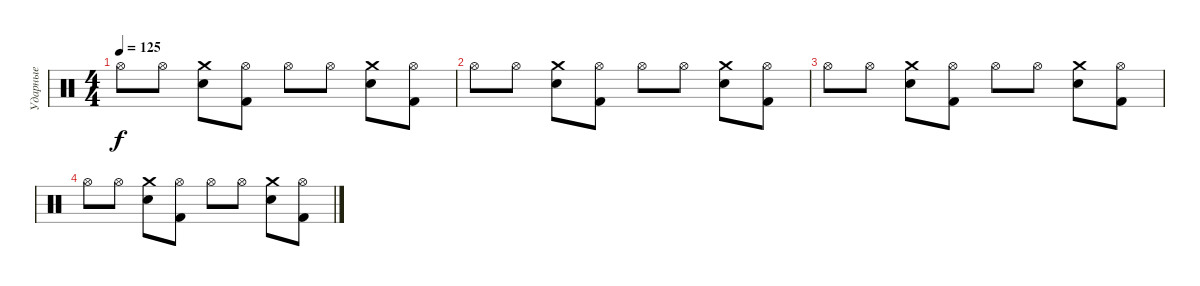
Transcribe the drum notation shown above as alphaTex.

\track ("Ударные" "Ударные") {instrument percussion}
\staff {score}
\articulation defaults
\ts (4 4)
\tempo 125
\clef neutral
\ks c "Hi-Hat (open)".8{dy f} "Hi-Hat (open)".8
("Crash medium (hit)" "Electric Snare (hit)").8 ("Hi-Hat (open)" "Kick (hit) 2").8 "Hi-Hat (open)".8 "Hi-Hat (open)".8 ("Crash medium (hit)" "Electric Snare (hit)").8 ("Hi-Hat (open)" "Kick (hit) 2").8 |
"Hi-Hat (open)".8 "Hi-Hat (open)".8 ("Crash medium (hit)" "Electric Snare (hit)").8 ("Hi-Hat (open)" "Kick (hit) 2").8 "Hi-Hat (open)".8 "Hi-Hat (open)".8 ("Crash medium (hit)" "Electric Snare (hit)").8 ("Hi-Hat (open)" "Kick (hit) 2").8 |
"Hi-Hat (open)".8 "Hi-Hat (open)".8 ("Crash medium (hit)" "Electric Snare (hit)").8 ("Hi-Hat (open)" "Kick (hit) 2").8 "Hi-Hat (open)".8 "Hi-Hat (open)".8 ("Crash medium (hit)" "Electric Snare (hit)").8 ("Hi-Hat (open)" "Kick (hit) 2").8 |
"Hi-Hat (open)".8 "Hi-Hat (open)".8 ("Crash medium (hit)" "Electric Snare (hit)").8 ("Hi-Hat (open)" "Kick (hit) 2").8 "Hi-Hat (open)".8 "Hi-Hat (open)".8 ("Crash medium (hit)" "Electric Snare (hit)").8 ("Hi-Hat (open)" "Kick (hit) 2").8
